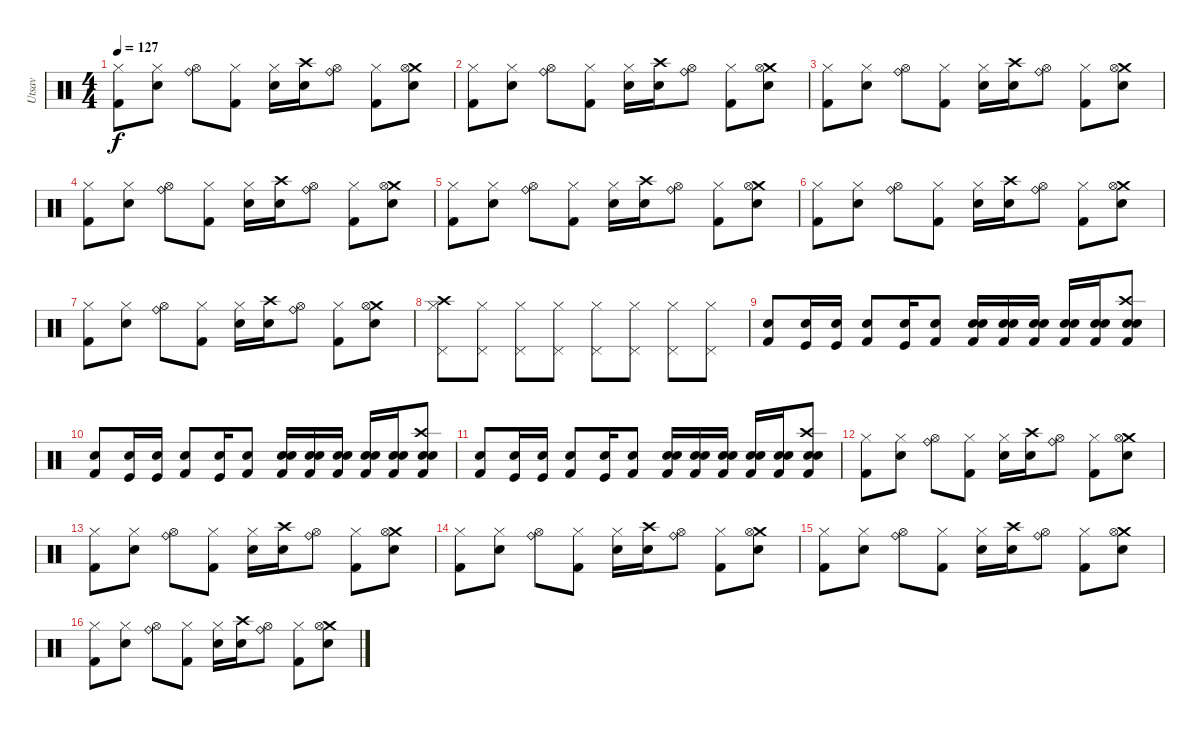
\track ("Utsav" "Utsav") {instrument percussion}
\staff {score}
\articulation defaults
\ts (4 4)
\tempo 127
\clef neutral
\ks c
("Hi-Hat (closed)" "Kick (hit) 2").8{dy f} ("Hi-Hat (closed)" "Snare (hit) 2").8 ("Ride (bell)" "Hi-Hat (open)").8 ("Hi-Hat (closed)" "Kick (hit) 2").8 ("Hi-Hat (closed)" "Snare (hit) 2").16 ("Crash high (hit)" "Snare (hit) 2").16 ("Ride (bell)" "Hi-Hat (open)").8 ("Hi-Hat (closed)" "Kick (hit) 2").8 ("Crash medium (hit)" "Hi-Hat (open)" "Snare (hit) 2").8 |
("Hi-Hat (closed)" "Kick (hit) 2").8 ("Hi-Hat (closed)" "Snare (hit) 2").8 ("Ride (bell)" "Hi-Hat (open)").8 ("Hi-Hat (closed)" "Kick (hit) 2").8 ("Hi-Hat (closed)" "Snare (hit) 2").16 ("Crash high (hit)" "Snare (hit) 2").16 ("Ride (bell)" "Hi-Hat (open)").8 ("Hi-Hat (closed)" "Kick (hit) 2").8 ("Crash medium (hit)" "Hi-Hat (open)" "Snare (hit) 2").8 |
("Hi-Hat (closed)" "Kick (hit) 2").8 ("Hi-Hat (closed)" "Snare (hit) 2").8 ("Ride (bell)" "Hi-Hat (open)").8 ("Hi-Hat (closed)" "Kick (hit) 2").8 ("Hi-Hat (closed)" "Snare (hit) 2").16 ("Crash high (hit)" "Snare (hit) 2").16 ("Ride (bell)" "Hi-Hat (open)").8 ("Hi-Hat (closed)" "Kick (hit) 2").8 ("Crash medium (hit)" "Hi-Hat (open)" "Snare (hit) 2").8 |
("Hi-Hat (closed)" "Kick (hit) 2").8 ("Hi-Hat (closed)" "Snare (hit) 2").8 ("Ride (bell)" "Hi-Hat (open)").8 ("Hi-Hat (closed)" "Kick (hit) 2").8 ("Hi-Hat (closed)" "Snare (hit) 2").16 ("Crash high (hit)" "Snare (hit) 2").16 ("Ride (bell)" "Hi-Hat (open)").8 ("Hi-Hat (closed)" "Kick (hit) 2").8 ("Crash medium (hit)" "Hi-Hat (open)" "Snare (hit) 2").8 |
("Hi-Hat (closed)" "Kick (hit) 2").8 ("Hi-Hat (closed)" "Snare (hit) 2").8 ("Ride (bell)" "Hi-Hat (open)").8 ("Hi-Hat (closed)" "Kick (hit) 2").8 ("Hi-Hat (closed)" "Snare (hit) 2").16 ("Crash high (hit)" "Snare (hit) 2").16 ("Ride (bell)" "Hi-Hat (open)").8 ("Hi-Hat (closed)" "Kick (hit) 2").8 ("Crash medium (hit)" "Hi-Hat (open)" "Snare (hit) 2").8 |
("Hi-Hat (closed)" "Kick (hit) 2").8 ("Hi-Hat (closed)" "Snare (hit) 2").8 ("Ride (bell)" "Hi-Hat (open)").8 ("Hi-Hat (closed)" "Kick (hit) 2").8 ("Hi-Hat (closed)" "Snare (hit) 2").16 ("Crash high (hit)" "Snare (hit) 2").16 ("Ride (bell)" "Hi-Hat (open)").8 ("Hi-Hat (closed)" "Kick (hit) 2").8 ("Crash medium (hit)" "Hi-Hat (open)" "Snare (hit) 2").8 |
("Hi-Hat (closed)" "Kick (hit) 2").8 ("Hi-Hat (closed)" "Snare (hit) 2").8 ("Ride (bell)" "Hi-Hat (open)").8 ("Hi-Hat (closed)" "Kick (hit) 2").8 ("Hi-Hat (closed)" "Snare (hit) 2").16 ("Crash high (hit)" "Snare (hit) 2").16 ("Ride (bell)" "Hi-Hat (open)").8 ("Hi-Hat (closed)" "Kick (hit) 2").8 ("Crash medium (hit)" "Hi-Hat (open)" "Snare (hit) 2").8 |
("Pedal Hi-Hat (hit)" "Crash high (hit)" "Hi-Hat (closed)").8{volume 16} ("Pedal Hi-Hat (hit)" "Hi-Hat (closed)").8 ("Pedal Hi-Hat (hit)" "Hi-Hat (closed)").8 ("Pedal Hi-Hat (hit)" "Hi-Hat (closed)").8 ("Pedal Hi-Hat (hit)" "Hi-Hat (closed)").8 ("Pedal Hi-Hat (hit)" "Hi-Hat (closed)").8 ("Pedal Hi-Hat (hit)" "Hi-Hat (closed)").8 ("Pedal Hi-Hat (hit)" "Hi-Hat (closed)").8 |
("Electric Snare (hit)" "Kick (hit) 2").8 ("Kick (hit)" "Snare (hit) 2").16 ("Kick (hit)" "Snare (hit) 2").16 ("Electric Snare (hit)" "Kick (hit) 2").8 ("Kick (hit)" "Snare (hit) 2").16 ("Electric Snare (hit)" "Kick (hit) 2").8 ("Electric Snare (hit)" "Snare (hit) 2" "Kick (hit) 2").16 ("Electric Snare (hit)" "Snare (hit) 2" "Kick (hit) 2").16 ("Electric Snare (hit)" "Snare (hit) 2" "Kick (hit) 2").16 ("Electric Snare (hit)" "Snare (hit) 2" "Kick (hit) 2").16 ("Electric Snare (hit)" "Snare (hit) 2" "Kick (hit) 2").16 ("Crash high (hit)" "Electric Snare (hit)" "Snare (hit) 2" "Kick (hit) 2").8 |
("Electric Snare (hit)" "Kick (hit) 2").8 ("Kick (hit)" "Snare (hit) 2").16 ("Kick (hit)" "Snare (hit) 2").16 ("Electric Snare (hit)" "Kick (hit) 2").8 ("Kick (hit)" "Snare (hit) 2").16 ("Electric Snare (hit)" "Kick (hit) 2").8 ("Electric Snare (hit)" "Snare (hit) 2" "Kick (hit) 2").16 ("Electric Snare (hit)" "Snare (hit) 2" "Kick (hit) 2").16 ("Electric Snare (hit)" "Snare (hit) 2" "Kick (hit) 2").16 ("Electric Snare (hit)" "Snare (hit) 2" "Kick (hit) 2").16 ("Electric Snare (hit)" "Snare (hit) 2" "Kick (hit) 2").16 ("Crash high (hit)" "Electric Snare (hit)" "Snare (hit) 2" "Kick (hit) 2").8 |
("Electric Snare (hit)" "Kick (hit) 2").8 ("Kick (hit)" "Snare (hit) 2").16 ("Kick (hit)" "Snare (hit) 2").16 ("Electric Snare (hit)" "Kick (hit) 2").8 ("Kick (hit)" "Snare (hit) 2").16 ("Electric Snare (hit)" "Kick (hit) 2").8 ("Electric Snare (hit)" "Snare (hit) 2" "Kick (hit) 2").16 ("Electric Snare (hit)" "Snare (hit) 2" "Kick (hit) 2").16 ("Electric Snare (hit)" "Snare (hit) 2" "Kick (hit) 2").16 ("Electric Snare (hit)" "Snare (hit) 2" "Kick (hit) 2").16 ("Electric Snare (hit)" "Snare (hit) 2" "Kick (hit) 2").16 ("Crash high (hit)" "Electric Snare (hit)" "Snare (hit) 2" "Kick (hit) 2").8 |
("Hi-Hat (closed)" "Kick (hit) 2").8 ("Hi-Hat (closed)" "Snare (hit) 2").8 ("Ride (bell)" "Hi-Hat (open)").8 ("Hi-Hat (closed)" "Kick (hit) 2").8 ("Hi-Hat (closed)" "Snare (hit) 2").16 ("Crash high (hit)" "Snare (hit) 2").16 ("Ride (bell)" "Hi-Hat (open)").8 ("Hi-Hat (closed)" "Kick (hit) 2").8 ("Crash medium (hit)" "Hi-Hat (open)" "Snare (hit) 2").8 |
("Hi-Hat (closed)" "Kick (hit) 2").8 ("Hi-Hat (closed)" "Snare (hit) 2").8 ("Ride (bell)" "Hi-Hat (open)").8 ("Hi-Hat (closed)" "Kick (hit) 2").8 ("Hi-Hat (closed)" "Snare (hit) 2").16 ("Crash high (hit)" "Snare (hit) 2").16 ("Ride (bell)" "Hi-Hat (open)").8 ("Hi-Hat (closed)" "Kick (hit) 2").8 ("Crash medium (hit)" "Hi-Hat (open)" "Snare (hit) 2").8 |
("Hi-Hat (closed)" "Kick (hit) 2").8 ("Hi-Hat (closed)" "Snare (hit) 2").8 ("Ride (bell)" "Hi-Hat (open)").8 ("Hi-Hat (closed)" "Kick (hit) 2").8 ("Hi-Hat (closed)" "Snare (hit) 2").16 ("Crash high (hit)" "Snare (hit) 2").16 ("Ride (bell)" "Hi-Hat (open)").8 ("Hi-Hat (closed)" "Kick (hit) 2").8 ("Crash medium (hit)" "Hi-Hat (open)" "Snare (hit) 2").8 |
("Hi-Hat (closed)" "Kick (hit) 2").8 ("Hi-Hat (closed)" "Snare (hit) 2").8 ("Ride (bell)" "Hi-Hat (open)").8 ("Hi-Hat (closed)" "Kick (hit) 2").8 ("Hi-Hat (closed)" "Snare (hit) 2").16 ("Crash high (hit)" "Snare (hit) 2").16 ("Ride (bell)" "Hi-Hat (open)").8 ("Hi-Hat (closed)" "Kick (hit) 2").8 ("Crash medium (hit)" "Hi-Hat (open)" "Snare (hit) 2").8 |
("Hi-Hat (closed)" "Kick (hit) 2").8 ("Hi-Hat (closed)" "Snare (hit) 2").8 ("Ride (bell)" "Hi-Hat (open)").8 ("Hi-Hat (closed)" "Kick (hit) 2").8 ("Hi-Hat (closed)" "Snare (hit) 2").16 ("Crash high (hit)" "Snare (hit) 2").16 ("Ride (bell)" "Hi-Hat (open)").8 ("Hi-Hat (closed)" "Kick (hit) 2").8 ("Crash medium (hit)" "Hi-Hat (open)" "Snare (hit) 2").8
